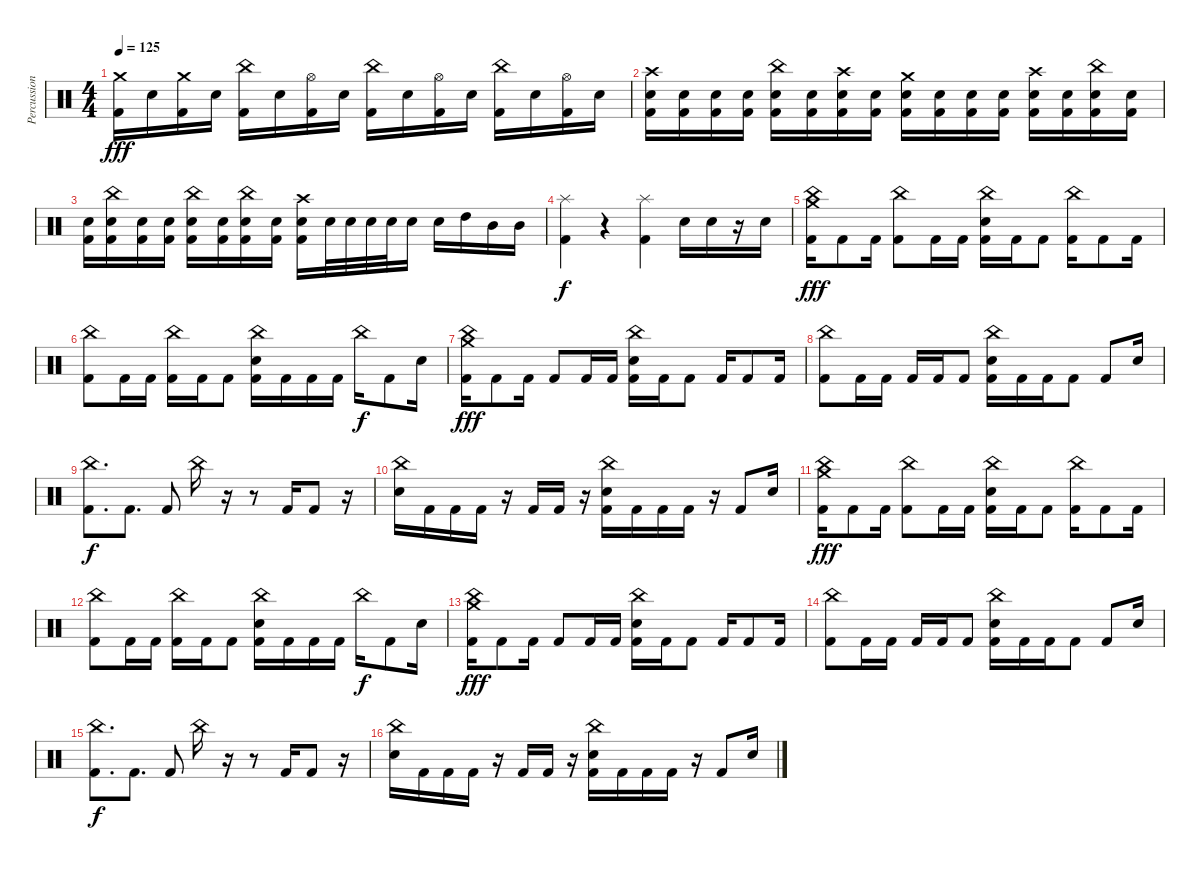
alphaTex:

\track ("Percussion" "Percussion") {instrument percussion}
\staff {score}
\articulation defaults
\ts (4 4)
\tempo 125
\clef neutral
\ks c
("Crash medium (hit)" "Kick (hit) 2").16{dy fff} "Electric Snare (hit)".16 ("Crash medium (hit)" "Kick (hit) 2").16 "Electric Snare (hit)".16 ("China (hit)" "Kick (hit) 2").16 "Electric Snare (hit)".16 ("Hi-Hat (open)" "Kick (hit) 2").16 "Electric Snare (hit)".16 ("China (hit)" "Kick (hit) 2").16 "Electric Snare (hit)".16 ("Hi-Hat (open)" "Kick (hit) 2").16 "Electric Snare (hit)".16 ("China (hit)" "Kick (hit) 2").16 "Electric Snare (hit)".16 ("Hi-Hat (open)" "Kick (hit) 2").16 "Electric Snare (hit)".16 |
("Crash high (hit)" "Electric Snare (hit)" "Kick (hit) 2").16 ("Electric Snare (hit)" "Kick (hit) 2").16 ("Electric Snare (hit)" "Kick (hit) 2").16 ("Electric Snare (hit)" "Kick (hit) 2").16 ("China (hit)" "Electric Snare (hit)" "Kick (hit) 2").16 ("Electric Snare (hit)" "Kick (hit) 2").16 ("Crash high (hit)" "Electric Snare (hit)" "Kick (hit) 2").16 ("Electric Snare (hit)" "Kick (hit) 2").16 ("Crash medium (hit)" "Electric Snare (hit)" "Kick (hit) 2").16 ("Electric Snare (hit)" "Kick (hit) 2").16 ("Electric Snare (hit)" "Kick (hit) 2").16 ("Electric Snare (hit)" "Kick (hit) 2").16 ("Crash high (hit)" "Electric Snare (hit)" "Kick (hit) 2").16 ("Electric Snare (hit)" "Kick (hit) 2").16 ("China (hit)" "Electric Snare (hit)" "Kick (hit) 2").16 ("Electric Snare (hit)" "Kick (hit) 2").16 |
("Electric Snare (hit)" "Kick (hit) 2").16 ("China (hit)" "Electric Snare (hit)" "Kick (hit) 2").16 ("Electric Snare (hit)" "Kick (hit) 2").16 ("Electric Snare (hit)" "Kick (hit) 2").16 ("China (hit)" "Electric Snare (hit)" "Kick (hit) 2").16 ("Electric Snare (hit)" "Kick (hit) 2").16 ("China (hit)" "Electric Snare (hit)" "Kick (hit) 2").16 ("Electric Snare (hit)" "Kick (hit) 2").16 ("Crash high (hit)" "Electric Snare (hit)" "Kick (hit) 2").16 "Electric Snare (hit)".32 "Electric Snare (hit)".32 "Electric Snare (hit)".32 "Electric Snare (hit)".32 "Electric Snare (hit)".16 "Electric Snare (hit)".16 "High Tom (hit)".16 "Mid Tom (hit)".16 "Mid Tom (hit)".16 |
("Splash (hit)" "Kick (hit) 2").4{dy f} r.4 ("Splash (hit)" "Kick (hit) 2").4 "Electric Snare (hit)".16 "Electric Snare (hit)".16 r.16 "Electric Snare (hit)".16 |
("China (hit)" "Crash medium (hit)" "Kick (hit) 2").16{dy fff} "Kick (hit) 2".8 "Kick (hit) 2".16 ("China (hit)" "Kick (hit) 2").8 "Kick (hit) 2".16 "Kick (hit) 2".16 ("China (hit)" "Electric Snare (hit)" "Kick (hit) 2").16 "Kick (hit) 2".16 "Kick (hit) 2".8 ("China (hit)" "Kick (hit) 2").16 "Kick (hit) 2".8 "Kick (hit) 2".16 |
("China (hit)" "Kick (hit) 2").8 "Kick (hit) 2".16 "Kick (hit) 2".16 ("China (hit)" "Kick (hit) 2").16 "Kick (hit) 2".16 "Kick (hit) 2".8 ("China (hit)" "Electric Snare (hit)" "Kick (hit) 2").16 "Kick (hit) 2".16 "Kick (hit) 2".16 "Kick (hit) 2".16 "China (hit)".16{dy f} "Kick (hit) 2".8 "Electric Snare (hit)".16 |
("China (hit)" "Crash medium (hit)" "Kick (hit) 2").16{dy fff} "Kick (hit) 2".8 "Kick (hit) 2".16 "Kick (hit) 2".8 "Kick (hit) 2".16 "Kick (hit) 2".16 ("China (hit)" "Electric Snare (hit)" "Kick (hit) 2").16 "Kick (hit) 2".16 "Kick (hit) 2".8 "Kick (hit) 2".16 "Kick (hit) 2".8 "Kick (hit) 2".16 |
("China (hit)" "Kick (hit) 2").8 "Kick (hit) 2".16 "Kick (hit) 2".16 "Kick (hit) 2".16 "Kick (hit) 2".16 "Kick (hit) 2".8 ("China (hit)" "Electric Snare (hit)" "Kick (hit) 2").16 "Kick (hit) 2".16 "Kick (hit) 2".16 "Kick (hit) 2".8 "Kick (hit) 2".8 "Electric Snare (hit)".16 |
("China (hit)" "Kick (hit) 2").8{d dy f} "Kick (hit) 2".8{d} "Kick (hit) 2".8 "China (hit)".16 r.16 r.8 "Kick (hit) 2".16 "Kick (hit) 2".8 r.16 |
("China (hit)" "Electric Snare (hit)").16 "Kick (hit) 2".16 "Kick (hit) 2".16 "Kick (hit) 2".16 r.16 "Kick (hit) 2".16 "Kick (hit) 2".16 r.16 ("China (hit)" "Electric Snare (hit)" "Kick (hit) 2").16 "Kick (hit) 2".16 "Kick (hit) 2".16 "Kick (hit) 2".16 r.16 "Kick (hit) 2".8 "Electric Snare (hit)".16 |
("China (hit)" "Crash medium (hit)" "Kick (hit) 2").16{dy fff} "Kick (hit) 2".8 "Kick (hit) 2".16 ("China (hit)" "Kick (hit) 2").8 "Kick (hit) 2".16 "Kick (hit) 2".16 ("China (hit)" "Electric Snare (hit)" "Kick (hit) 2").16 "Kick (hit) 2".16 "Kick (hit) 2".8 ("China (hit)" "Kick (hit) 2").16 "Kick (hit) 2".8 "Kick (hit) 2".16 |
("China (hit)" "Kick (hit) 2").8 "Kick (hit) 2".16 "Kick (hit) 2".16 ("China (hit)" "Kick (hit) 2").16 "Kick (hit) 2".16 "Kick (hit) 2".8 ("China (hit)" "Electric Snare (hit)" "Kick (hit) 2").16 "Kick (hit) 2".16 "Kick (hit) 2".16 "Kick (hit) 2".16 "China (hit)".16{dy f} "Kick (hit) 2".8 "Electric Snare (hit)".16 |
("China (hit)" "Crash medium (hit)" "Kick (hit) 2").16{dy fff} "Kick (hit) 2".8 "Kick (hit) 2".16 "Kick (hit) 2".8 "Kick (hit) 2".16 "Kick (hit) 2".16 ("China (hit)" "Electric Snare (hit)" "Kick (hit) 2").16 "Kick (hit) 2".16 "Kick (hit) 2".8 "Kick (hit) 2".16 "Kick (hit) 2".8 "Kick (hit) 2".16 |
("China (hit)" "Kick (hit) 2").8 "Kick (hit) 2".16 "Kick (hit) 2".16 "Kick (hit) 2".16 "Kick (hit) 2".16 "Kick (hit) 2".8 ("China (hit)" "Electric Snare (hit)" "Kick (hit) 2").16 "Kick (hit) 2".16 "Kick (hit) 2".16 "Kick (hit) 2".8 "Kick (hit) 2".8 "Electric Snare (hit)".16 |
("China (hit)" "Kick (hit) 2").8{d dy f} "Kick (hit) 2".8{d} "Kick (hit) 2".8 "China (hit)".16 r.16 r.8 "Kick (hit) 2".16 "Kick (hit) 2".8 r.16 |
("China (hit)" "Electric Snare (hit)").16 "Kick (hit) 2".16 "Kick (hit) 2".16 "Kick (hit) 2".16 r.16 "Kick (hit) 2".16 "Kick (hit) 2".16 r.16 ("China (hit)" "Electric Snare (hit)" "Kick (hit) 2").16 "Kick (hit) 2".16 "Kick (hit) 2".16 "Kick (hit) 2".16 r.16 "Kick (hit) 2".8 "Electric Snare (hit)".16
